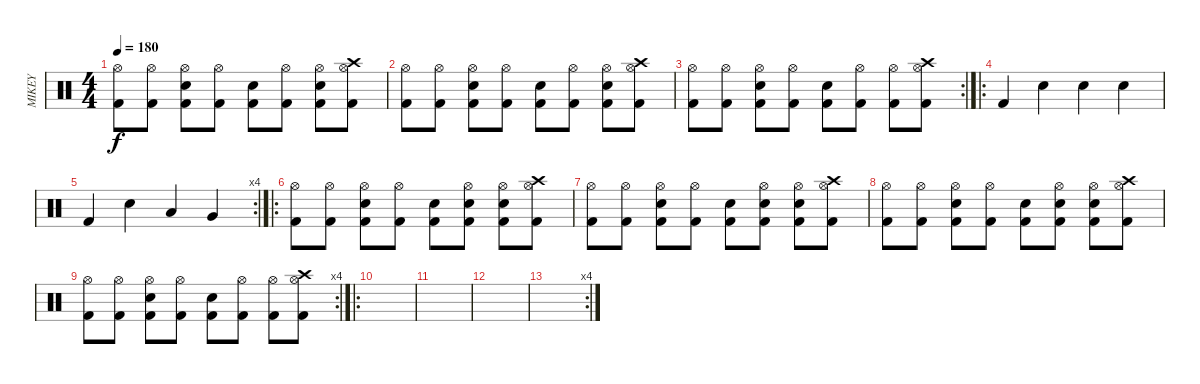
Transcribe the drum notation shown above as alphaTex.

\track ("MIKEY" "MIKEY") {instrument percussion}
\staff {score}
\articulation defaults
\ts (4 4)
\tempo 180
\clef neutral
\ks c
("Hi-Hat (open)" "Kick (hit) 2").8{dy f} ("Hi-Hat (open)" "Kick (hit) 2").8 ("Snare (hit) 2" "Hi-Hat (open)" "Kick (hit) 2").8 ("Hi-Hat (open)" "Kick (hit) 2").8 ("Snare (hit) 2" "Kick (hit) 2").8 ("Hi-Hat (open)" "Kick (hit) 2").8 ("Snare (hit) 2" "Hi-Hat (open)" "Kick (hit) 2").8 ("Crash high (hit)" "Hi-Hat (open)" "Kick (hit) 2").8 |
("Hi-Hat (open)" "Kick (hit) 2").8 ("Hi-Hat (open)" "Kick (hit) 2").8 ("Snare (hit) 2" "Hi-Hat (open)" "Kick (hit) 2").8 ("Hi-Hat (open)" "Kick (hit) 2").8 ("Snare (hit) 2" "Kick (hit) 2").8 ("Hi-Hat (open)" "Kick (hit) 2").8 ("Snare (hit) 2" "Hi-Hat (open)" "Kick (hit) 2").8 ("Crash high (hit)" "Hi-Hat (open)" "Kick (hit) 2").8 |
\rc 2
("Hi-Hat (open)" "Kick (hit) 2").8 ("Hi-Hat (open)" "Kick (hit) 2").8 ("Snare (hit) 2" "Hi-Hat (open)" "Kick (hit) 2").8 ("Hi-Hat (open)" "Kick (hit) 2").8 ("Snare (hit) 2" "Kick (hit) 2").8 ("Hi-Hat (open)" "Kick (hit) 2").8 ("Hi-Hat (open)" "Kick (hit) 2").8 ("Crash high (hit)" "Hi-Hat (open)" "Kick (hit) 2").8 |
\ro "Kick (hit) 2".4 "Snare (hit) 2".4 "Snare (hit) 2".4 "Snare (hit) 2".4
|
\rc 4 "Kick (hit) 2".4 "Snare (hit) 2".4 "Low Tom (hit)".4 "Very Low Tom (hit)".4
|
\ro
("Hi-Hat (open)" "Kick (hit) 2").8 ("Hi-Hat (open)" "Kick (hit) 2").8 ("Snare (hit) 2" "Hi-Hat (open)" "Kick (hit) 2").8 ("Hi-Hat (open)" "Kick (hit) 2").8 ("Snare (hit) 2" "Kick (hit) 2").8 ("Snare (hit) 2" "Hi-Hat (open)" "Kick (hit) 2").8 ("Snare (hit) 2" "Hi-Hat (open)" "Kick (hit) 2").8 ("Crash high (hit)" "Hi-Hat (open)" "Kick (hit) 2").8 |
("Hi-Hat (open)" "Kick (hit) 2").8 ("Hi-Hat (open)" "Kick (hit) 2").8 ("Snare (hit) 2" "Hi-Hat (open)" "Kick (hit) 2").8 ("Hi-Hat (open)" "Kick (hit) 2").8 ("Snare (hit) 2" "Kick (hit) 2").8 ("Snare (hit) 2" "Hi-Hat (open)" "Kick (hit) 2").8 ("Snare (hit) 2" "Hi-Hat (open)" "Kick (hit) 2").8 ("Crash high (hit)" "Hi-Hat (open)" "Kick (hit) 2").8 |
("Hi-Hat (open)" "Kick (hit) 2").8 ("Hi-Hat (open)" "Kick (hit) 2").8 ("Snare (hit) 2" "Hi-Hat (open)" "Kick (hit) 2").8 ("Hi-Hat (open)" "Kick (hit) 2").8 ("Snare (hit) 2" "Kick (hit) 2").8 ("Snare (hit) 2" "Hi-Hat (open)" "Kick (hit) 2").8 ("Snare (hit) 2" "Hi-Hat (open)" "Kick (hit) 2").8 ("Crash high (hit)" "Hi-Hat (open)" "Kick (hit) 2").8 |
\rc 4
("Hi-Hat (open)" "Kick (hit) 2").8 ("Hi-Hat (open)" "Kick (hit) 2").8 ("Snare (hit) 2" "Hi-Hat (open)" "Kick (hit) 2").8 ("Hi-Hat (open)" "Kick (hit) 2").8 ("Snare (hit) 2" "Kick (hit) 2").8 ("Hi-Hat (open)" "Kick (hit) 2").8 ("Hi-Hat (open)" "Kick (hit) 2").8 ("Crash high (hit)" "Hi-Hat (open)" "Kick (hit) 2").8 |
\ro
|
|
|
\rc 4
